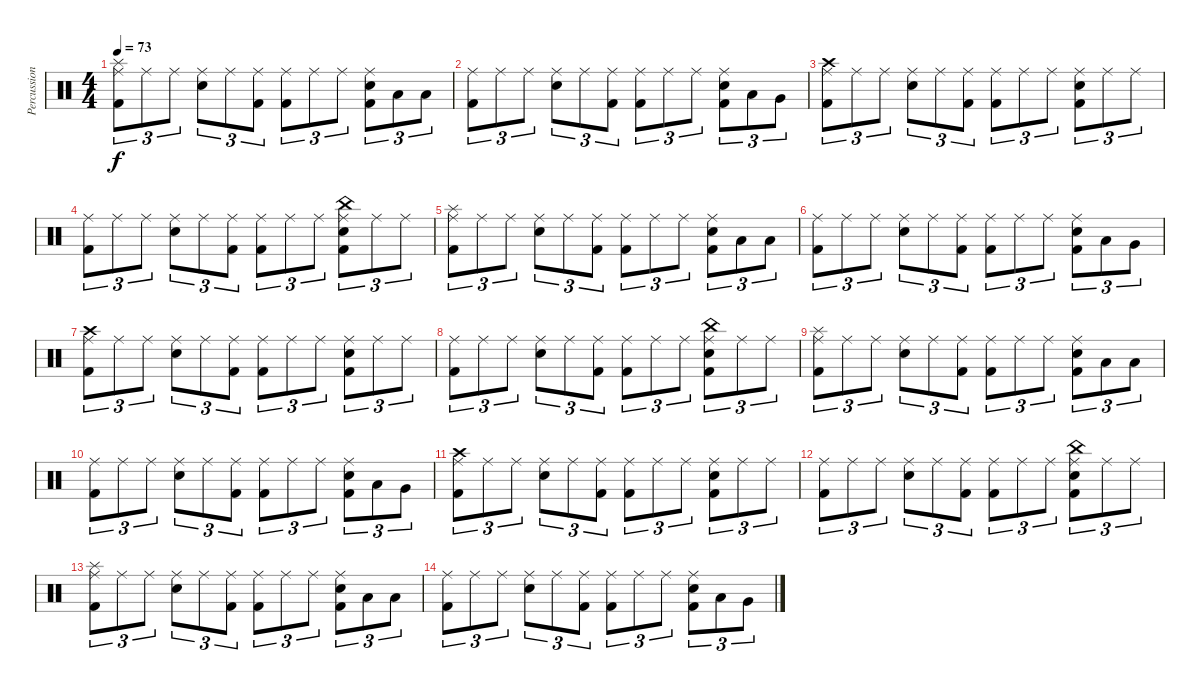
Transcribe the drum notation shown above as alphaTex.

\track ("Percussion" "Percussion") {instrument percussion}
\staff {score}
\articulation defaults
\ts (4 4)
\tempo 73
\clef neutral
\ks c
("Ride (middle)" "Splash (hit)" "Kick (hit) 2").8{tu (3 2) dy f} "Ride (middle)".8{tu (3 2)} "Ride (middle)".8{tu (3 2)} ("Ride (middle)" "Snare (hit) 2").8{tu (3 2)} "Ride (middle)".8{tu (3 2)} ("Ride (middle)" "Kick (hit) 2").8{tu (3 2)} ("Ride (middle)" "Kick (hit) 2").8{tu (3 2)} "Ride (middle)".8{tu (3 2)} "Ride (middle)".8{tu (3 2)} ("Ride (middle)" "Snare (hit) 2" "Kick (hit) 2").8{tu (3 2)} "Low Tom (hit)".8{tu (3 2)} "Low Tom (hit)".8{tu (3 2)} |
("Ride (middle)" "Kick (hit) 2").8{tu (3 2)} "Ride (middle)".8{tu (3 2)} "Ride (middle)".8{tu (3 2)} ("Ride (middle)" "Snare (hit) 2").8{tu (3 2)} "Ride (middle)".8{tu (3 2)} ("Ride (middle)" "Kick (hit) 2").8{tu (3 2)} ("Ride (middle)" "Kick (hit) 2").8{tu (3 2)} "Ride (middle)".8{tu (3 2)} "Ride (middle)".8{tu (3 2)} ("Ride (middle)" "Snare (hit) 2" "Kick (hit) 2").8{tu (3 2)} "Low Tom (hit)".8{tu (3 2)} "Very Low Tom (hit)".8{tu (3 2)} |
("Ride (middle)" "Crash high (hit)" "Kick (hit) 2").8{tu (3 2)} "Ride (middle)".8{tu (3 2)} "Ride (middle)".8{tu (3 2)} ("Ride (middle)" "Snare (hit) 2").8{tu (3 2)} "Ride (middle)".8{tu (3 2)} ("Ride (middle)" "Kick (hit) 2").8{tu (3 2)} ("Ride (middle)" "Kick (hit) 2").8{tu (3 2)} "Ride (middle)".8{tu (3 2)} "Ride (middle)".8{tu (3 2)} ("Ride (middle)" "Snare (hit) 2" "Kick (hit) 2").8{tu (3 2)} "Ride (middle)".8{tu (3 2)} "Ride (middle)".8{tu (3 2)} |
("Ride (middle)" "Kick (hit) 2").8{tu (3 2)} "Ride (middle)".8{tu (3 2)} "Ride (middle)".8{tu (3 2)} ("Ride (middle)" "Snare (hit) 2").8{tu (3 2)} "Ride (middle)".8{tu (3 2)} ("Ride (middle)" "Kick (hit) 2").8{tu (3 2)} ("Ride (middle)" "Kick (hit) 2").8{tu (3 2)} "Ride (middle)".8{tu (3 2)} "Ride (middle)".8{tu (3 2)} ("Ride (middle)" "China (hit)" "Snare (hit) 2" "Kick (hit) 2").8{tu (3 2)} "Ride (middle)".8{tu (3 2)} "Ride (middle)".8{tu (3 2)} |
("Ride (middle)" "Splash (hit)" "Kick (hit) 2").8{tu (3 2)} "Ride (middle)".8{tu (3 2)} "Ride (middle)".8{tu (3 2)} ("Ride (middle)" "Snare (hit) 2").8{tu (3 2)} "Ride (middle)".8{tu (3 2)} ("Ride (middle)" "Kick (hit) 2").8{tu (3 2)} ("Ride (middle)" "Kick (hit) 2").8{tu (3 2)} "Ride (middle)".8{tu (3 2)} "Ride (middle)".8{tu (3 2)} ("Ride (middle)" "Snare (hit) 2" "Kick (hit) 2").8{tu (3 2)} "Low Tom (hit)".8{tu (3 2)} "Low Tom (hit)".8{tu (3 2)} |
("Ride (middle)" "Kick (hit) 2").8{tu (3 2)} "Ride (middle)".8{tu (3 2)} "Ride (middle)".8{tu (3 2)} ("Ride (middle)" "Snare (hit) 2").8{tu (3 2)} "Ride (middle)".8{tu (3 2)} ("Ride (middle)" "Kick (hit) 2").8{tu (3 2)} ("Ride (middle)" "Kick (hit) 2").8{tu (3 2)} "Ride (middle)".8{tu (3 2)} "Ride (middle)".8{tu (3 2)} ("Ride (middle)" "Snare (hit) 2" "Kick (hit) 2").8{tu (3 2)} "Low Tom (hit)".8{tu (3 2)} "Very Low Tom (hit)".8{tu (3 2)} |
("Ride (middle)" "Crash high (hit)" "Kick (hit) 2").8{tu (3 2)} "Ride (middle)".8{tu (3 2)} "Ride (middle)".8{tu (3 2)} ("Ride (middle)" "Snare (hit) 2").8{tu (3 2)} "Ride (middle)".8{tu (3 2)} ("Ride (middle)" "Kick (hit) 2").8{tu (3 2)} ("Ride (middle)" "Kick (hit) 2").8{tu (3 2)} "Ride (middle)".8{tu (3 2)} "Ride (middle)".8{tu (3 2)} ("Ride (middle)" "Snare (hit) 2" "Kick (hit) 2").8{tu (3 2)} "Ride (middle)".8{tu (3 2)} "Ride (middle)".8{tu (3 2)} |
("Ride (middle)" "Kick (hit) 2").8{tu (3 2)} "Ride (middle)".8{tu (3 2)} "Ride (middle)".8{tu (3 2)} ("Ride (middle)" "Snare (hit) 2").8{tu (3 2)} "Ride (middle)".8{tu (3 2)} ("Ride (middle)" "Kick (hit) 2").8{tu (3 2)} ("Ride (middle)" "Kick (hit) 2").8{tu (3 2)} "Ride (middle)".8{tu (3 2)} "Ride (middle)".8{tu (3 2)} ("Ride (middle)" "China (hit)" "Snare (hit) 2" "Kick (hit) 2").8{tu (3 2)} "Ride (middle)".8{tu (3 2)} "Ride (middle)".8{tu (3 2)} |
("Ride (middle)" "Splash (hit)" "Kick (hit) 2").8{tu (3 2)} "Ride (middle)".8{tu (3 2)} "Ride (middle)".8{tu (3 2)} ("Ride (middle)" "Snare (hit) 2").8{tu (3 2)} "Ride (middle)".8{tu (3 2)} ("Ride (middle)" "Kick (hit) 2").8{tu (3 2)} ("Ride (middle)" "Kick (hit) 2").8{tu (3 2)} "Ride (middle)".8{tu (3 2)} "Ride (middle)".8{tu (3 2)} ("Ride (middle)" "Snare (hit) 2" "Kick (hit) 2").8{tu (3 2)} "Low Tom (hit)".8{tu (3 2)} "Low Tom (hit)".8{tu (3 2)} |
("Ride (middle)" "Kick (hit) 2").8{tu (3 2)} "Ride (middle)".8{tu (3 2)} "Ride (middle)".8{tu (3 2)} ("Ride (middle)" "Snare (hit) 2").8{tu (3 2)} "Ride (middle)".8{tu (3 2)} ("Ride (middle)" "Kick (hit) 2").8{tu (3 2)} ("Ride (middle)" "Kick (hit) 2").8{tu (3 2)} "Ride (middle)".8{tu (3 2)} "Ride (middle)".8{tu (3 2)} ("Ride (middle)" "Snare (hit) 2" "Kick (hit) 2").8{tu (3 2)} "Low Tom (hit)".8{tu (3 2)} "Very Low Tom (hit)".8{tu (3 2)} |
("Ride (middle)" "Crash high (hit)" "Kick (hit) 2").8{tu (3 2)} "Ride (middle)".8{tu (3 2)} "Ride (middle)".8{tu (3 2)} ("Ride (middle)" "Snare (hit) 2").8{tu (3 2)} "Ride (middle)".8{tu (3 2)} ("Ride (middle)" "Kick (hit) 2").8{tu (3 2)} ("Ride (middle)" "Kick (hit) 2").8{tu (3 2)} "Ride (middle)".8{tu (3 2)} "Ride (middle)".8{tu (3 2)} ("Ride (middle)" "Snare (hit) 2" "Kick (hit) 2").8{tu (3 2)} "Ride (middle)".8{tu (3 2)} "Ride (middle)".8{tu (3 2)} |
("Ride (middle)" "Kick (hit) 2").8{tu (3 2)} "Ride (middle)".8{tu (3 2)} "Ride (middle)".8{tu (3 2)} ("Ride (middle)" "Snare (hit) 2").8{tu (3 2)} "Ride (middle)".8{tu (3 2)} ("Ride (middle)" "Kick (hit) 2").8{tu (3 2)} ("Ride (middle)" "Kick (hit) 2").8{tu (3 2)} "Ride (middle)".8{tu (3 2)} "Ride (middle)".8{tu (3 2)} ("Ride (middle)" "China (hit)" "Snare (hit) 2" "Kick (hit) 2").8{tu (3 2)} "Ride (middle)".8{tu (3 2)} "Ride (middle)".8{tu (3 2)} |
("Ride (middle)" "Splash (hit)" "Kick (hit) 2").8{tu (3 2)} "Ride (middle)".8{tu (3 2)} "Ride (middle)".8{tu (3 2)} ("Ride (middle)" "Snare (hit) 2").8{tu (3 2)} "Ride (middle)".8{tu (3 2)} ("Ride (middle)" "Kick (hit) 2").8{tu (3 2)} ("Ride (middle)" "Kick (hit) 2").8{tu (3 2)} "Ride (middle)".8{tu (3 2)} "Ride (middle)".8{tu (3 2)} ("Ride (middle)" "Snare (hit) 2" "Kick (hit) 2").8{tu (3 2)} "Low Tom (hit)".8{tu (3 2)} "Low Tom (hit)".8{tu (3 2)} |
("Ride (middle)" "Kick (hit) 2").8{tu (3 2)} "Ride (middle)".8{tu (3 2)} "Ride (middle)".8{tu (3 2)} ("Ride (middle)" "Snare (hit) 2").8{tu (3 2)} "Ride (middle)".8{tu (3 2)} ("Ride (middle)" "Kick (hit) 2").8{tu (3 2)} ("Ride (middle)" "Kick (hit) 2").8{tu (3 2)} "Ride (middle)".8{tu (3 2)} "Ride (middle)".8{tu (3 2)} ("Ride (middle)" "Snare (hit) 2" "Kick (hit) 2").8{tu (3 2)} "Low Tom (hit)".8{tu (3 2)} "Very Low Tom (hit)".8{tu (3 2)}
